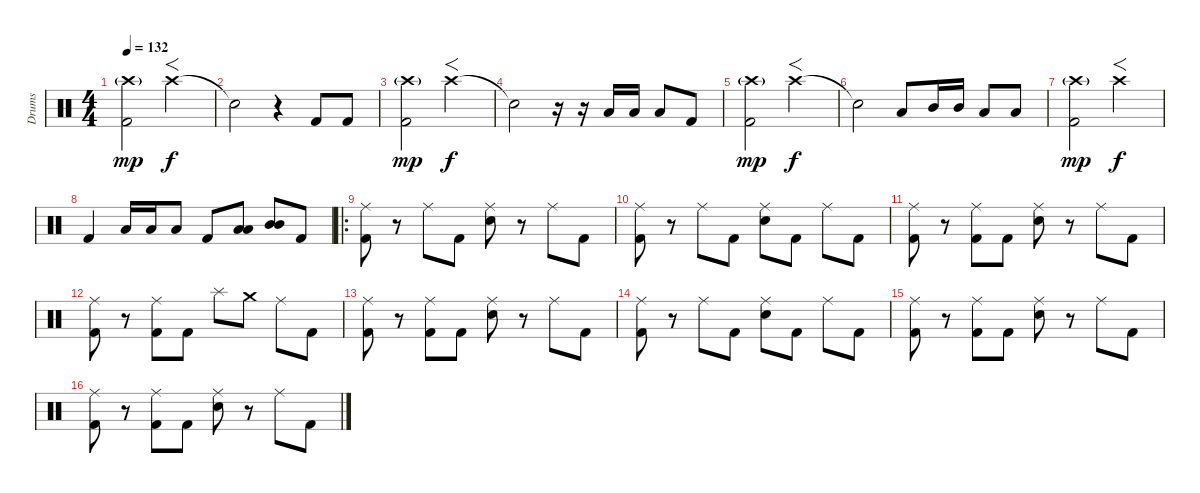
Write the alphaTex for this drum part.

\track ("Drums" "Drums") {instrument percussion}
\staff {score}
\articulation defaults
\ts (4 4)
\tempo 132
\clef neutral
\ks c
("Kick (hit) 2" "Crash high (hit)"{g}).2{dy mp} "Crash high (hit)".2{f dy f} |
"Snare (hit)"{t}.2 r.4 "Kick (hit) 2".8 "Kick (hit) 2".8 |
("Kick (hit) 2" "Crash high (hit)"{g}).2{dy mp} "Crash high (hit)".2{f dy f} |
"Snare (hit)"{t}.2 r.16 r.16 "Low Tom (hit)".16 "Low Tom (hit)".16 "Low Tom (hit)".8 "Kick (hit) 2".8 |
("Kick (hit) 2" "Crash high (hit)"{g}).2{dy mp} "Crash high (hit)".2{f dy f} |
"Snare (hit)"{t}.2 "Low Tom (hit)".8 "Mid Tom (hit)".16 "Mid Tom (hit)".16 "Low Tom (hit)".8 "Low Tom (hit)".8 |
("Kick (hit) 2" "Crash high (hit)"{g}).2{dy mp} "Crash high (hit)".2{f dy f} |
"Kick (hit) 2".4 "Low Tom (hit)".16 "Low Tom (hit)".16 "Low Tom (hit)".8 "Kick (hit) 2".8 ("Low Tom (hit)" "Low Tom (hit)").8 ("Mid Tom (hit)" "Mid Tom (hit)").8 "Kick (hit) 2".8 |
\ro
("Kick (hit) 2" "Ride (middle)").8 r.8 "Ride (middle)".8 "Kick (hit) 2".8 ("Snare (hit) 2" "Ride (middle)").8 r.8 "Ride (middle)".8 "Kick (hit) 2".8 |
("Kick (hit) 2" "Ride (middle)").8 r.8 "Ride (middle)".8 "Kick (hit) 2".8 ("Snare (hit) 2" "Ride (middle)").8 "Kick (hit) 2".8 "Ride (middle)".8 "Kick (hit) 2".8 |
("Kick (hit) 2" "Ride (middle)").8 r.8 ("Kick (hit) 2" "Ride (middle)").8 "Kick (hit) 2".8 ("Snare (hit) 2" "Ride (middle)").8 r.8 "Ride (middle)".8 "Kick (hit) 2".8 |
("Kick (hit) 2" "Ride (middle)").8 r.8 ("Kick (hit) 2" "Ride (middle)").8 "Kick (hit) 2".8 "Splash (hit)".8 "Crash medium (hit)".8 "Ride (middle)".8 "Kick (hit) 2".8 |
("Kick (hit) 2" "Ride (middle)").8 r.8 ("Kick (hit) 2" "Ride (middle)").8 "Kick (hit) 2".8 ("Snare (hit) 2" "Ride (middle)").8 r.8 "Ride (middle)".8 "Kick (hit) 2".8 |
("Kick (hit) 2" "Ride (middle)").8 r.8 "Ride (middle)".8 "Kick (hit) 2".8 ("Snare (hit) 2" "Ride (middle)").8 "Kick (hit) 2".8 "Ride (middle)".8 "Kick (hit) 2".8 |
("Kick (hit) 2" "Ride (middle)").8 r.8 ("Kick (hit) 2" "Ride (middle)").8 "Kick (hit) 2".8 ("Snare (hit) 2" "Ride (middle)").8 r.8 "Ride (middle)".8 "Kick (hit) 2".8 |
("Kick (hit) 2" "Ride (middle)").8 r.8 ("Kick (hit) 2" "Ride (middle)").8 "Kick (hit) 2".8 ("Snare (hit) 2" "Ride (middle)").8 r.8 "Ride (middle)".8 "Kick (hit) 2".8
